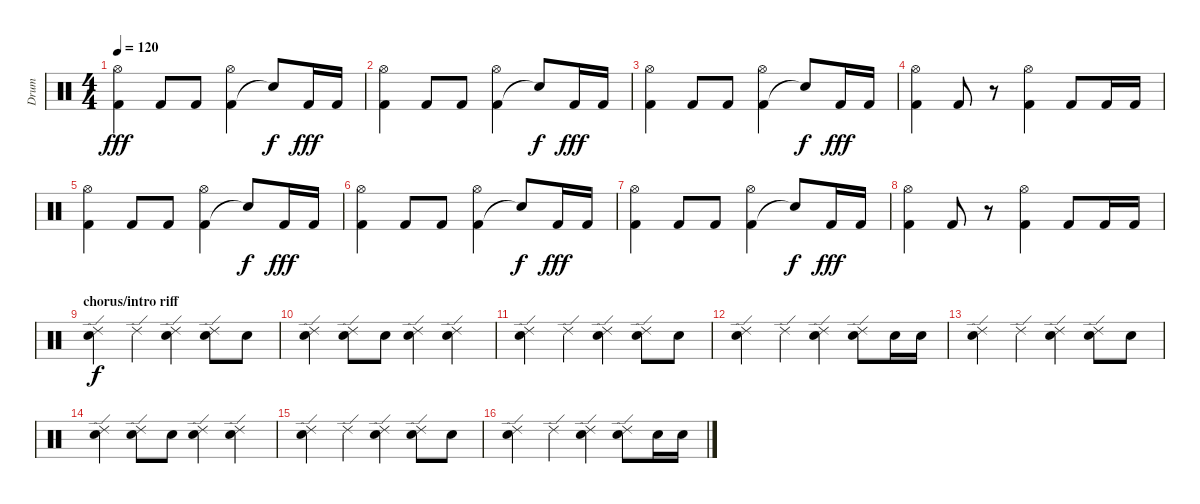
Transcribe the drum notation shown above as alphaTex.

\track ("Drum" "Drum") {instrument percussion}
\staff {score}
\articulation defaults
\ts (4 4)
\tempo 120
\clef neutral
\ks c
("Kick (hit) 2" "Hi-Hat (open)").4{dy fff} "Kick (hit) 2".8 "Kick (hit) 2".8 ("Kick (hit) 2" "Hi-Hat (open)").4 "Snare (hit)"{t}.8{dy f} "Kick (hit) 2".16{dy fff} "Kick (hit) 2".16 |
("Kick (hit) 2" "Hi-Hat (open)").4 "Kick (hit) 2".8 "Kick (hit) 2".8 ("Kick (hit) 2" "Hi-Hat (open)").4 "Snare (hit)"{t}.8{dy f} "Kick (hit) 2".16{dy fff} "Kick (hit) 2".16 |
("Kick (hit) 2" "Hi-Hat (open)").4 "Kick (hit) 2".8 "Kick (hit) 2".8 ("Kick (hit) 2" "Hi-Hat (open)").4 "Snare (hit)"{t}.8{dy f} "Kick (hit) 2".16{dy fff} "Kick (hit) 2".16 |
("Kick (hit) 2" "Hi-Hat (open)").4 "Kick (hit) 2".8 r.8 ("Kick (hit) 2" "Hi-Hat (open)").4 "Kick (hit) 2".8 "Kick (hit) 2".16 "Kick (hit) 2".16 |
("Kick (hit) 2" "Hi-Hat (open)").4 "Kick (hit) 2".8 "Kick (hit) 2".8 ("Kick (hit) 2" "Hi-Hat (open)").4 "Snare (hit)"{t}.8{dy f} "Kick (hit) 2".16{dy fff} "Kick (hit) 2".16 |
("Kick (hit) 2" "Hi-Hat (open)").4 "Kick (hit) 2".8 "Kick (hit) 2".8 ("Kick (hit) 2" "Hi-Hat (open)").4 "Snare (hit)"{t}.8{dy f} "Kick (hit) 2".16{dy fff} "Kick (hit) 2".16 |
("Kick (hit) 2" "Hi-Hat (open)").4 "Kick (hit) 2".8 "Kick (hit) 2".8 ("Kick (hit) 2" "Hi-Hat (open)").4 "Snare (hit)"{t}.8{dy f} "Kick (hit) 2".16{dy fff} "Kick (hit) 2".16 |
("Kick (hit) 2" "Hi-Hat (open)").4 "Kick (hit) 2".8 r.8 ("Kick (hit) 2" "Hi-Hat (open)").4 "Kick (hit) 2".8 "Kick (hit) 2".16 "Kick (hit) 2".16 |
\section ("" "chorus/intro riff")
("Electric Snare (hit)" "Ride (edge) 2").4{dy f} "Ride (edge) 2".4 ("Electric Snare (hit)" "Ride (edge) 2").4 ("Electric Snare (hit)" "Ride (edge) 2").8 "Electric Snare (hit)".8 |
("Electric Snare (hit)" "Ride (edge) 2").4 ("Electric Snare (hit)" "Ride (edge) 2").8 "Electric Snare (hit)".8 ("Electric Snare (hit)" "Ride (edge) 2").4 ("Electric Snare (hit)" "Ride (edge) 2").4 |
("Electric Snare (hit)" "Ride (edge) 2").4 "Ride (edge) 2".4 ("Electric Snare (hit)" "Ride (edge) 2").4 ("Electric Snare (hit)" "Ride (edge) 2").8 "Electric Snare (hit)".8 |
("Electric Snare (hit)" "Ride (edge) 2").4 "Ride (edge) 2".4 ("Electric Snare (hit)" "Ride (edge) 2").4 ("Electric Snare (hit)" "Ride (edge) 2").8 "Electric Snare (hit)".16 "Electric Snare (hit)".16 |
("Electric Snare (hit)" "Ride (edge) 2").4 "Ride (edge) 2".4 ("Electric Snare (hit)" "Ride (edge) 2").4 ("Electric Snare (hit)" "Ride (edge) 2").8 "Electric Snare (hit)".8 |
("Electric Snare (hit)" "Ride (edge) 2").4 ("Electric Snare (hit)" "Ride (edge) 2").8 "Electric Snare (hit)".8 ("Electric Snare (hit)" "Ride (edge) 2").4 ("Electric Snare (hit)" "Ride (edge) 2").4 |
("Electric Snare (hit)" "Ride (edge) 2").4 "Ride (edge) 2".4 ("Electric Snare (hit)" "Ride (edge) 2").4 ("Electric Snare (hit)" "Ride (edge) 2").8 "Electric Snare (hit)".8 |
("Electric Snare (hit)" "Ride (edge) 2").4 "Ride (edge) 2".4 ("Electric Snare (hit)" "Ride (edge) 2").4 ("Electric Snare (hit)" "Ride (edge) 2").8 "Electric Snare (hit)".16 "Electric Snare (hit)".16
